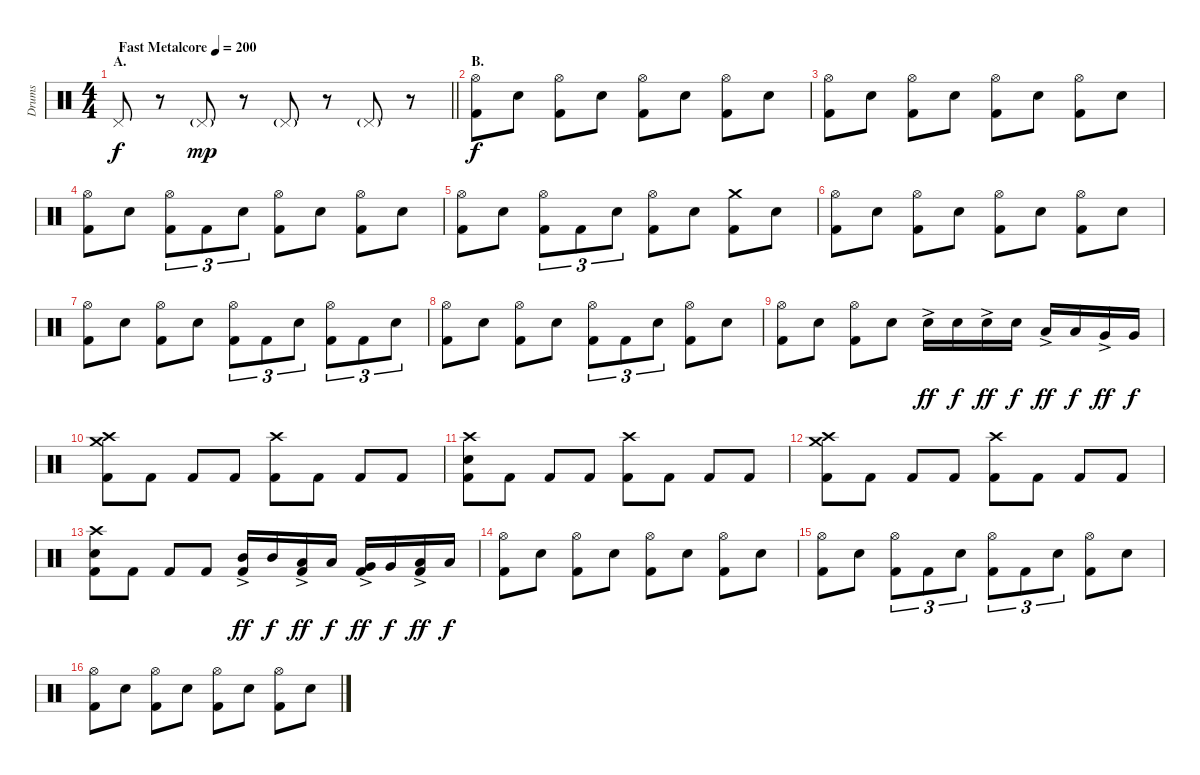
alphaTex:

\track ("Drums" "Drums") {instrument percussion}
\staff {score}
\articulation defaults
\ts (4 4)
\section ("" "A.")
\tempo (200 "Fast Metalcore")
\clef neutral
\barLineRight lightlight
\ks c "Pedal Hi-Hat (hit)".8{dy f}
r.8 "Pedal Hi-Hat (hit)"{g}.8{dy mp} r.8 "Pedal Hi-Hat (hit)"{g}.8 r.8 "Pedal Hi-Hat (hit)"{g}.8 r.8 |
\section ("" "B.")
("Hi-Hat (open)" "Kick (hit) 2").8{dy f} "Electric Snare (hit)".8 ("Hi-Hat (open)" "Kick (hit) 2").8 "Electric Snare (hit)".8 ("Hi-Hat (open)" "Kick (hit) 2").8 "Electric Snare (hit)".8 ("Hi-Hat (open)" "Kick (hit) 2").8 "Electric Snare (hit)".8 |
("Hi-Hat (open)" "Kick (hit) 2").8 "Electric Snare (hit)".8 ("Hi-Hat (open)" "Kick (hit) 2").8 "Electric Snare (hit)".8 ("Hi-Hat (open)" "Kick (hit) 2").8 "Electric Snare (hit)".8 ("Hi-Hat (open)" "Kick (hit) 2").8 "Electric Snare (hit)".8 |
("Hi-Hat (open)" "Kick (hit) 2").8 "Electric Snare (hit)".8 ("Hi-Hat (open)" "Kick (hit) 2").8{tu (3 2)} "Kick (hit) 2".8{tu (3 2)} "Electric Snare (hit)".8{tu (3 2)} ("Hi-Hat (open)" "Kick (hit) 2").8 "Electric Snare (hit)".8 ("Hi-Hat (open)" "Kick (hit) 2").8 "Electric Snare (hit)".8 |
("Hi-Hat (open)" "Kick (hit) 2").8 "Electric Snare (hit)".8 ("Hi-Hat (open)" "Kick (hit) 2").8{tu (3 2)} "Kick (hit) 2".8{tu (3 2)} "Electric Snare (hit)".8{tu (3 2)} ("Hi-Hat (open)" "Kick (hit) 2").8 "Electric Snare (hit)".8 ("Crash medium (hit)" "Kick (hit) 2").8 "Electric Snare (hit)".8 |
("Hi-Hat (open)" "Kick (hit) 2").8 "Electric Snare (hit)".8 ("Hi-Hat (open)" "Kick (hit) 2").8 "Electric Snare (hit)".8 ("Hi-Hat (open)" "Kick (hit) 2").8 "Electric Snare (hit)".8 ("Hi-Hat (open)" "Kick (hit) 2").8 "Electric Snare (hit)".8 |
("Hi-Hat (open)" "Kick (hit) 2").8 "Electric Snare (hit)".8 ("Hi-Hat (open)" "Kick (hit) 2").8 "Electric Snare (hit)".8 ("Hi-Hat (open)" "Kick (hit) 2").8{tu (3 2)} "Kick (hit) 2".8{tu (3 2)} "Electric Snare (hit)".8{tu (3 2)} ("Hi-Hat (open)" "Kick (hit) 2").8{tu (3 2)} "Kick (hit) 2".8{tu (3 2)} "Electric Snare (hit)".8{tu (3 2)} |
("Hi-Hat (open)" "Kick (hit) 2").8 "Electric Snare (hit)".8 ("Hi-Hat (open)" "Kick (hit) 2").8 "Electric Snare (hit)".8 ("Hi-Hat (open)" "Kick (hit) 2").8{tu (3 2)} "Kick (hit) 2".8{tu (3 2)} "Electric Snare (hit)".8{tu (3 2)} ("Hi-Hat (open)" "Kick (hit) 2").8 "Electric Snare (hit)".8 |
("Hi-Hat (open)" "Kick (hit) 2").8 "Electric Snare (hit)".8 ("Hi-Hat (open)" "Kick (hit) 2").8 "Electric Snare (hit)".8 "Electric Snare (hit)"{ac}.16{dy ff} "Electric Snare (hit)".16{dy f} "Electric Snare (hit)"{ac}.16{dy ff} "Electric Snare (hit)".16{dy f} "Low Tom (hit)"{ac}.16{dy ff} "Low Tom (hit)".16{dy f} "Very Low Tom (hit)"{ac}.16{dy ff} "Very Low Tom (hit)".16{dy f} |
("Crash medium (hit)" "Crash high (hit)" "Kick (hit) 2").8 "Kick (hit) 2".8 "Kick (hit) 2".8 "Kick (hit) 2".8 ("Crash high (hit)" "Kick (hit) 2").8 "Kick (hit) 2".8 "Kick (hit) 2".8 "Kick (hit) 2".8 |
("Crash high (hit)" "Electric Snare (hit)" "Kick (hit) 2").8 "Kick (hit) 2".8 "Kick (hit) 2".8 "Kick (hit) 2".8 ("Crash high (hit)" "Kick (hit) 2").8 "Kick (hit) 2".8 "Kick (hit) 2".8 "Kick (hit) 2".8 |
("Crash medium (hit)" "Crash high (hit)" "Kick (hit) 2").8 "Kick (hit) 2".8 "Kick (hit) 2".8 "Kick (hit) 2".8 ("Crash high (hit)" "Kick (hit) 2").8 "Kick (hit) 2".8 "Kick (hit) 2".8 "Kick (hit) 2".8 |
("Crash high (hit)" "Electric Snare (hit)" "Kick (hit) 2").8 "Kick (hit) 2".8 "Kick (hit) 2".8 "Kick (hit) 2".8 ("Mid Tom (hit)"{ac} "Kick (hit) 2").16{dy ff} "Mid Tom (hit)".16{dy f} ("Low Tom (hit)"{ac} "Kick (hit) 2").16{dy ff} "Low Tom (hit)".16{dy f} ("Very Low Tom (hit)"{ac} "Kick (hit) 2").16{dy ff} "Very Low Tom (hit)".16{dy f} ("Low Floor Tom (hit)"{ac} "Kick (hit) 2").16{dy ff} "Low Floor Tom (hit)".16{dy f} |
("Hi-Hat (open)" "Kick (hit) 2").8 "Electric Snare (hit)".8 ("Hi-Hat (open)" "Kick (hit) 2").8 "Electric Snare (hit)".8 ("Hi-Hat (open)" "Kick (hit) 2").8 "Electric Snare (hit)".8 ("Hi-Hat (open)" "Kick (hit) 2").8 "Electric Snare (hit)".8 |
("Hi-Hat (open)" "Kick (hit) 2").8 "Electric Snare (hit)".8 ("Hi-Hat (open)" "Kick (hit) 2").8{tu (3 2)} "Kick (hit) 2".8{tu (3 2)} "Electric Snare (hit)".8{tu (3 2)} ("Hi-Hat (open)" "Kick (hit) 2").8{tu (3 2)} "Kick (hit) 2".8{tu (3 2)} "Electric Snare (hit)".8{tu (3 2)} ("Hi-Hat (open)" "Kick (hit) 2").8 "Electric Snare (hit)".8 |
("Hi-Hat (open)" "Kick (hit) 2").8 "Electric Snare (hit)".8 ("Hi-Hat (open)" "Kick (hit) 2").8 "Electric Snare (hit)".8 ("Hi-Hat (open)" "Kick (hit) 2").8 "Electric Snare (hit)".8 ("Hi-Hat (open)" "Kick (hit) 2").8 "Electric Snare (hit)".8
